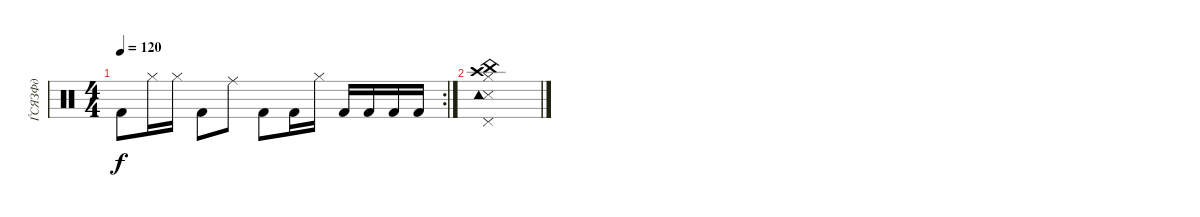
\track ("ЃСЯЗФд" "ЃСЯЗФд") {instrument percussion}
\staff {score}
\articulation defaults
\rc 2
\ts (4 4)
\tempo 120
\clef neutral
\ks aminor "Kick (hit) 2".8{dy f} "Hi-Hat (closed)".16 "Hi-Hat (closed)".16 "Kick (hit) 2".8 "Ride (middle)".8 "Kick (hit) 2".8 "Kick (hit) 2".16 "Hi-Hat (closed)".16 "Kick (hit) 2".16 "Kick (hit) 2".16 "Kick (hit) 2".16 "Kick (hit) 2".16
|
("Crash high (hit)" "China (hit)" "Snare (side stick) 3" "Pedal Hi-Hat (hit)" "Hi-Hat (closed)" "Tambourine (hit)").1
